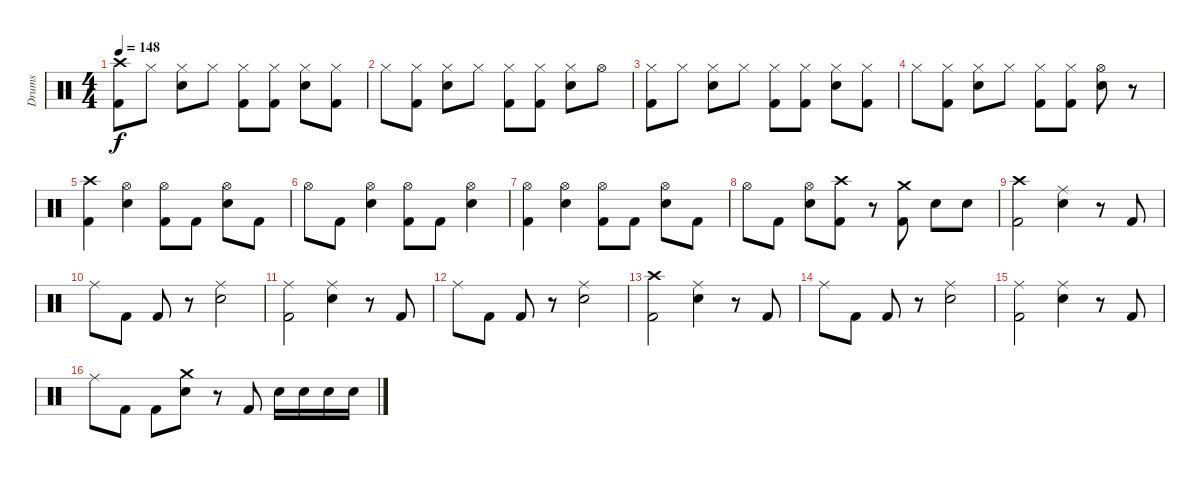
\track ("Drums" "Drums") {instrument percussion}
\staff {score}
\articulation defaults
\ts (4 4)
\tempo 148
\clef neutral
\ks c
("Crash high (hit)" "Kick (hit) 2").8{dy f} "Hi-Hat (closed)".8 ("Hi-Hat (closed)" "Snare (hit) 2").8 "Hi-Hat (closed)".8 ("Hi-Hat (closed)" "Kick (hit) 2").8 ("Hi-Hat (closed)" "Kick (hit) 2").8 ("Hi-Hat (closed)" "Snare (hit) 2").8 ("Hi-Hat (closed)" "Kick (hit) 2").8 |
"Hi-Hat (closed)".8 ("Hi-Hat (closed)" "Kick (hit) 2").8 ("Hi-Hat (closed)" "Snare (hit) 2").8 "Hi-Hat (closed)".8 ("Hi-Hat (closed)" "Kick (hit) 2").8 ("Hi-Hat (closed)" "Kick (hit) 2").8 ("Hi-Hat (closed)" "Snare (hit) 2").8 "Hi-Hat (open)".8 |
("Hi-Hat (closed)" "Kick (hit) 2").8 "Hi-Hat (closed)".8 ("Hi-Hat (closed)" "Snare (hit) 2").8 "Hi-Hat (closed)".8 ("Hi-Hat (closed)" "Kick (hit) 2").8 ("Hi-Hat (closed)" "Kick (hit) 2").8 ("Hi-Hat (closed)" "Snare (hit) 2").8 ("Hi-Hat (closed)" "Kick (hit) 2").8 |
"Hi-Hat (closed)".8 ("Hi-Hat (closed)" "Kick (hit) 2").8 ("Hi-Hat (closed)" "Snare (hit) 2").8 "Hi-Hat (closed)".8 ("Hi-Hat (closed)" "Kick (hit) 2").8 ("Hi-Hat (closed)" "Kick (hit) 2").8 ("Hi-Hat (open)" "Snare (hit) 2").8 r.8 |
("Crash high (hit)" "Kick (hit) 2").4 ("Hi-Hat (open)" "Snare (hit) 2").4 ("Hi-Hat (open)" "Kick (hit) 2").8 "Kick (hit) 2".8 ("Hi-Hat (open)" "Snare (hit) 2").8 "Kick (hit) 2".8 |
"Hi-Hat (open)".8 "Kick (hit) 2".8 ("Hi-Hat (open)" "Snare (hit) 2").4 ("Hi-Hat (open)" "Kick (hit) 2").8 "Kick (hit) 2".8 ("Hi-Hat (open)" "Snare (hit) 2").4 |
("Hi-Hat (open)" "Kick (hit) 2").4 ("Hi-Hat (open)" "Snare (hit) 2").4 ("Hi-Hat (open)" "Kick (hit) 2").8 "Kick (hit) 2".8 ("Hi-Hat (open)" "Snare (hit) 2").8 "Kick (hit) 2".8 |
"Hi-Hat (open)".8 "Kick (hit) 2".8 ("Hi-Hat (open)" "Snare (hit) 2").8 ("Crash high (hit)" "Kick (hit) 2").8 r.8 ("Crash medium (hit)" "Kick (hit) 2").8 "Snare (hit) 2".8 "Snare (hit) 2".8 |
("Crash high (hit)" "Kick (hit) 2").2 ("Ride (middle)" "Snare (hit) 2").4 r.8 "Kick (hit) 2".8 |
"Ride (middle)".8 "Kick (hit) 2".8 "Kick (hit) 2".8 r.8 ("Ride (middle)" "Snare (hit) 2").2 |
("Ride (middle)" "Kick (hit) 2").2 ("Ride (middle)" "Snare (hit) 2").4 r.8 "Kick (hit) 2".8 |
"Ride (middle)".8 "Kick (hit) 2".8 "Kick (hit) 2".8 r.8 ("Ride (middle)" "Snare (hit) 2").2 |
("Crash high (hit)" "Kick (hit) 2").2 ("Ride (middle)" "Snare (hit) 2").4 r.8 "Kick (hit) 2".8 |
"Ride (middle)".8 "Kick (hit) 2".8 "Kick (hit) 2".8 r.8 ("Ride (middle)" "Snare (hit) 2").2 |
("Ride (middle)" "Kick (hit) 2").2 ("Ride (middle)" "Snare (hit) 2").4 r.8 "Kick (hit) 2".8 |
"Ride (middle)".8 "Kick (hit) 2".8 "Kick (hit) 2".8 ("Crash medium (hit)" "Snare (hit) 2").8 r.8 "Kick (hit) 2".8 "Snare (hit) 2".16 "Snare (hit) 2".16 "Snare (hit) 2".16 "Snare (hit) 2".16
